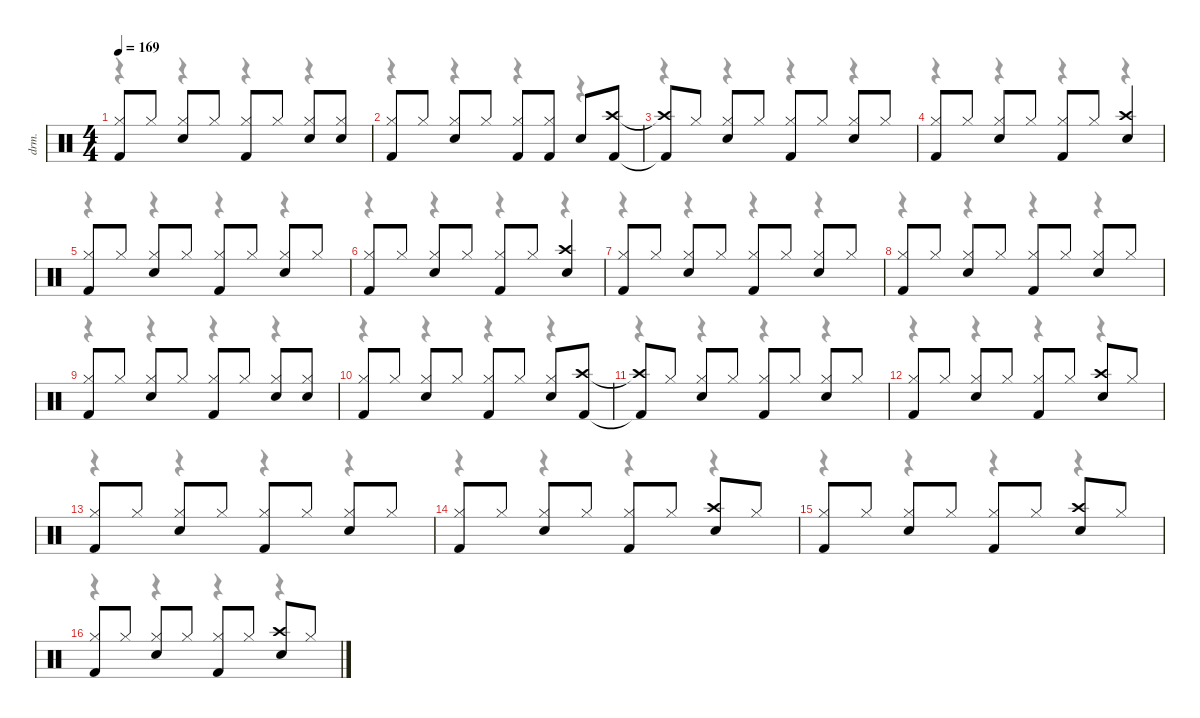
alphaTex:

\defaultSystemsLayout 4
\hideDynamics
\bracketExtendMode nobrackets
\otherSystemsTrackNameOrientation horizontal
\track ("Drums" "drm.") {instrument percussion}
\staff {score}
\articulation defaults
\voice
\ts (4 4)
\tempo 169
\clef neutral
\ks c
("Hi-Hat (closed)" "Kick (hit) 2").8{dy f} "Hi-Hat (closed)".8 ("Hi-Hat (closed)" "Snare (hit) 2").8 "Hi-Hat (closed)".8 ("Hi-Hat (closed)" "Kick (hit) 2").8 "Hi-Hat (closed)".8 ("Hi-Hat (closed)" "Snare (hit) 2").8 ("Hi-Hat (closed)" "Snare (hit) 2").8 |
("Hi-Hat (closed)" "Kick (hit) 2").8 "Hi-Hat (closed)".8 ("Hi-Hat (closed)" "Snare (hit) 2").8 "Hi-Hat (closed)".8 ("Hi-Hat (closed)" "Kick (hit) 2").8 ("Hi-Hat (closed)" "Kick (hit) 2").8 "Snare (hit) 2".8 ("Crash high (hit)" "Kick (hit) 2").8 |
("Crash high (hit)"{t} "Kick (hit) 2"{t}).8 "Hi-Hat (closed)".8 ("Hi-Hat (closed)" "Snare (hit) 2").8 "Hi-Hat (closed)".8 ("Hi-Hat (closed)" "Kick (hit) 2").8 "Hi-Hat (closed)".8 ("Hi-Hat (closed)" "Snare (hit) 2").8 "Hi-Hat (closed)".8 |
("Hi-Hat (closed)" "Kick (hit) 2").8 "Hi-Hat (closed)".8 ("Hi-Hat (closed)" "Snare (hit) 2").8 "Hi-Hat (closed)".8 ("Hi-Hat (closed)" "Kick (hit) 2").8 "Hi-Hat (closed)".8 ("Crash high (hit)" "Snare (hit) 2").4 |
("Hi-Hat (closed)" "Kick (hit) 2").8 "Hi-Hat (closed)".8 ("Hi-Hat (closed)" "Snare (hit) 2").8 "Hi-Hat (closed)".8 ("Hi-Hat (closed)" "Kick (hit) 2").8 "Hi-Hat (closed)".8 ("Hi-Hat (closed)" "Snare (hit) 2").8 "Hi-Hat (closed)".8 |
("Hi-Hat (closed)" "Kick (hit) 2").8 "Hi-Hat (closed)".8 ("Hi-Hat (closed)" "Snare (hit) 2").8 "Hi-Hat (closed)".8 ("Hi-Hat (closed)" "Kick (hit) 2").8 "Hi-Hat (closed)".8 ("Crash high (hit)" "Snare (hit) 2").4 |
("Hi-Hat (closed)" "Kick (hit) 2").8 "Hi-Hat (closed)".8 ("Hi-Hat (closed)" "Snare (hit) 2").8 "Hi-Hat (closed)".8 ("Hi-Hat (closed)" "Kick (hit) 2").8 "Hi-Hat (closed)".8 ("Hi-Hat (closed)" "Snare (hit) 2").8 "Hi-Hat (closed)".8 |
("Hi-Hat (closed)" "Kick (hit) 2").8 "Hi-Hat (closed)".8 ("Hi-Hat (closed)" "Snare (hit) 2").8 "Hi-Hat (closed)".8 ("Hi-Hat (closed)" "Kick (hit) 2").8 "Hi-Hat (closed)".8 ("Hi-Hat (closed)" "Snare (hit) 2").8 "Hi-Hat (closed)".8 |
("Hi-Hat (closed)" "Kick (hit) 2").8 "Hi-Hat (closed)".8 ("Hi-Hat (closed)" "Snare (hit) 2").8 "Hi-Hat (closed)".8 ("Hi-Hat (closed)" "Kick (hit) 2").8 "Hi-Hat (closed)".8 ("Hi-Hat (closed)" "Snare (hit) 2").8 ("Hi-Hat (closed)" "Snare (hit) 2").8 |
("Hi-Hat (closed)" "Kick (hit) 2").8 "Hi-Hat (closed)".8 ("Hi-Hat (closed)" "Snare (hit) 2").8 "Hi-Hat (closed)".8 ("Hi-Hat (closed)" "Kick (hit) 2").8 "Hi-Hat (closed)".8 ("Hi-Hat (closed)" "Snare (hit) 2").8 ("Crash high (hit)" "Kick (hit) 2").8 |
("Crash high (hit)"{t} "Kick (hit) 2"{t}).8 "Hi-Hat (closed)".8 ("Hi-Hat (closed)" "Snare (hit) 2").8 "Hi-Hat (closed)".8 ("Hi-Hat (closed)" "Kick (hit) 2").8 "Hi-Hat (closed)".8 ("Hi-Hat (closed)" "Snare (hit) 2").8 "Hi-Hat (closed)".8 |
("Hi-Hat (closed)" "Kick (hit) 2").8 "Hi-Hat (closed)".8 ("Hi-Hat (closed)" "Snare (hit) 2").8 "Hi-Hat (closed)".8 ("Hi-Hat (closed)" "Kick (hit) 2").8 "Hi-Hat (closed)".8 ("Crash high (hit)" "Snare (hit) 2").8 "Hi-Hat (closed)".8 |
("Hi-Hat (closed)" "Kick (hit) 2").8 "Hi-Hat (closed)".8 ("Hi-Hat (closed)" "Snare (hit) 2").8 "Hi-Hat (closed)".8 ("Hi-Hat (closed)" "Kick (hit) 2").8 "Hi-Hat (closed)".8 ("Hi-Hat (closed)" "Snare (hit) 2").8 "Hi-Hat (closed)".8 |
("Hi-Hat (closed)" "Kick (hit) 2").8 "Hi-Hat (closed)".8 ("Hi-Hat (closed)" "Snare (hit) 2").8 "Hi-Hat (closed)".8 ("Hi-Hat (closed)" "Kick (hit) 2").8 "Hi-Hat (closed)".8 ("Crash high (hit)" "Snare (hit) 2").8 "Hi-Hat (closed)".8 |
("Hi-Hat (closed)" "Kick (hit) 2").8 "Hi-Hat (closed)".8 ("Hi-Hat (closed)" "Snare (hit) 2").8 "Hi-Hat (closed)".8 ("Hi-Hat (closed)" "Kick (hit) 2").8 "Hi-Hat (closed)".8 ("Crash high (hit)" "Snare (hit) 2").8 "Hi-Hat (closed)".8 |
("Hi-Hat (closed)" "Kick (hit) 2").8 "Hi-Hat (closed)".8 ("Hi-Hat (closed)" "Snare (hit) 2").8 "Hi-Hat (closed)".8 ("Hi-Hat (closed)" "Kick (hit) 2").8 "Hi-Hat (closed)".8 ("Crash high (hit)" "Snare (hit) 2").8 "Hi-Hat (closed)".8
\voice
\clef neutral
\ottava regular
\simile none
\ks c
r.4{dy mf} r.4 r.4 r.4 |
r.4 r.4 r.4 r.4 |
r.4 r.4 r.4 r.4 |
r.4 r.4 r.4 r.4 |
r.4 r.4 r.4 r.4 |
r.4 r.4 r.4 r.4 |
r.4 r.4 r.4 r.4 |
r.4 r.4 r.4 r.4 |
r.4 r.4 r.4 r.4 |
r.4 r.4 r.4 r.4 |
r.4 r.4 r.4 r.4 |
r.4 r.4 r.4 r.4 |
r.4 r.4 r.4 r.4 |
r.4 r.4 r.4 r.4 |
r.4 r.4 r.4 r.4 |
r.4 r.4 r.4 r.4
